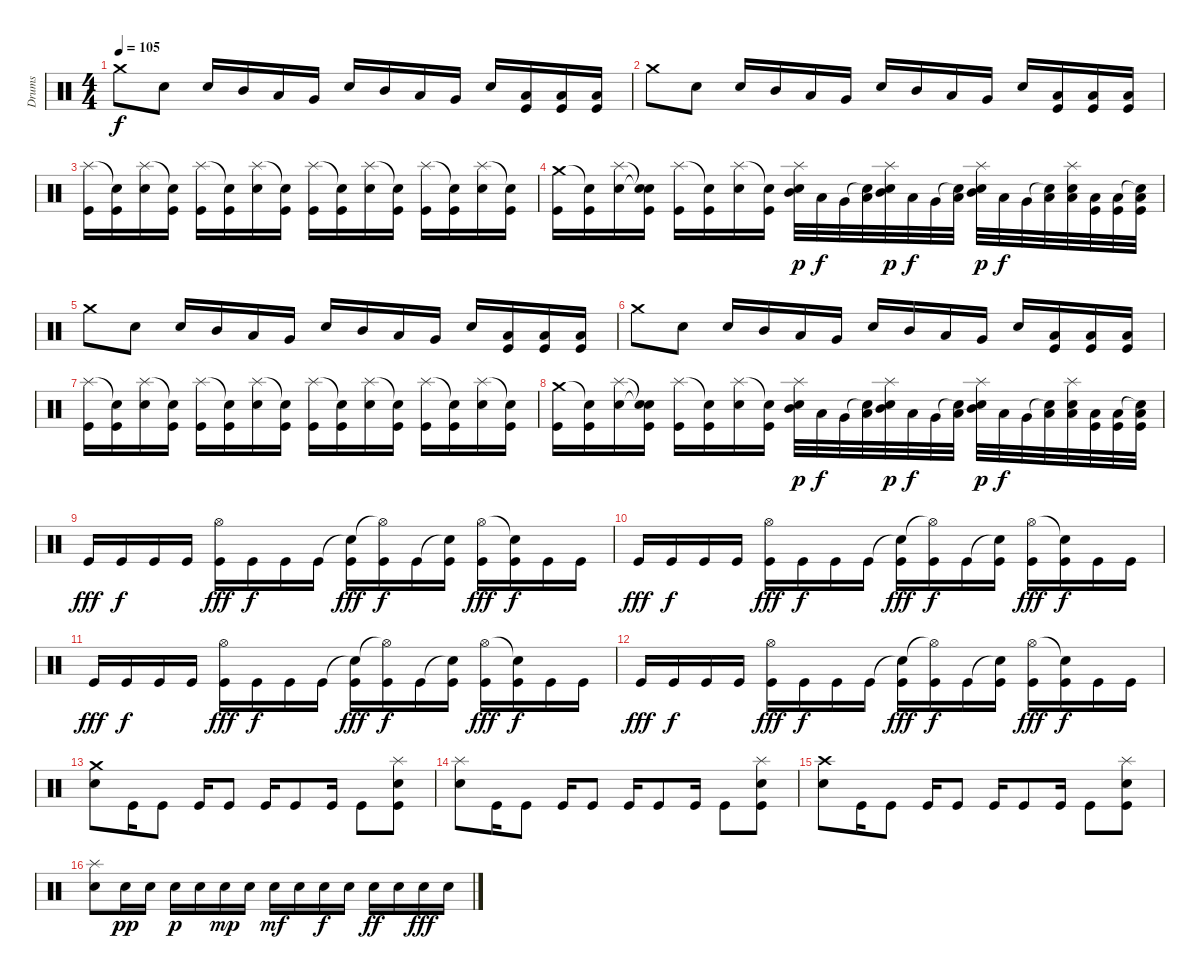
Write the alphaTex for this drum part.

\track ("Drums" "Drums") {instrument percussion}
\staff {score}
\articulation defaults
\ts (4 4)
\tempo 105
\clef neutral
\ks c "Crash medium (hit)".8{dy f} "Snare (hit) 2".8 "Snare (hit) 2".16 "Mid Tom (hit)".16 "Low Tom (hit)".16 "Very Low Tom (hit)".16 "Snare (hit) 2".16 "Mid Tom (hit)".16 "Low Tom (hit)".16 "Very Low Tom (hit)".16 "Snare (hit) 2".16
("Low Floor Tom (hit)" "Kick (hit)").16 ("Low Floor Tom (hit)" "Kick (hit)").16 ("Low Floor Tom (hit)" "Kick (hit)").16 |
"Crash medium (hit)".8 "Snare (hit) 2".8 "Snare (hit) 2".16 "Mid Tom (hit)".16 "Low Tom (hit)".16 "Very Low Tom (hit)".16 "Snare (hit) 2".16 "Mid Tom (hit)".16 "Low Tom (hit)".16 "Very Low Tom (hit)".16 "Snare (hit) 2".16 ("Low Floor Tom (hit)" "Kick (hit)").16 ("Low Floor Tom (hit)" "Kick (hit)").16 ("Low Floor Tom (hit)" "Kick (hit)").16 |
("Splash (hit)" "Kick (hit)").16 ("Snare (hit)"{t} "Kick (hit)").16 ("Splash (hit)" "Snare (hit) 2").16 ("Snare (hit)"{t} "Kick (hit)").16 ("Splash (hit)" "Kick (hit)").16 ("Snare (hit)"{t} "Kick (hit)").16 ("Splash (hit)" "Snare (hit) 2").16 ("Snare (hit)"{t} "Kick (hit)").16 ("Splash (hit)" "Kick (hit)").16 ("Snare (hit)"{t} "Kick (hit)").16 ("Splash (hit)" "Snare (hit) 2").16 ("Snare (hit)"{t} "Kick (hit)").16 ("Splash (hit)" "Kick (hit)").16 ("Snare (hit)"{t} "Kick (hit)").16 ("Splash (hit)" "Snare (hit) 2").16 ("Snare (hit)"{t} "Kick (hit)").16 |
("Crash medium (hit)" "Kick (hit)").16 ("Snare (hit)"{t} "Kick (hit)").16 ("Splash (hit)" "Snare (hit) 2").16 ("Snare (hit)"{t} "Snare (hit)"{t} "Kick (hit)").16 ("Splash (hit)" "Kick (hit)").16 ("Snare (hit)"{t} "Kick (hit)").16 ("Splash (hit)" "Snare (hit) 2").16 ("Snare (hit)"{t} "Kick (hit)").16 ("Splash (hit)" "Mid Tom (hit)" "Snare (hit) 2").32{dy p} "Low Tom (hit)".32{dy f} "Very Low Tom (hit)".32 ("Snare (hit)"{t} "Low Floor Tom (hit)").32 ("Splash (hit)" "Mid Tom (hit)" "Snare (hit) 2").32{dy p} "Low Tom (hit)".32{dy f} "Very Low Tom (hit)".32 ("Snare (hit)"{t} "Low Floor Tom (hit)").32 ("Splash (hit)" "Mid Tom (hit)" "Snare (hit) 2").32{dy p} "Low Tom (hit)".32{dy f} "Very Low Tom (hit)".32 ("Snare (hit)"{t} "Low Floor Tom (hit)").32 ("Splash (hit)" "Low Floor Tom (hit)" "Snare (hit) 2").32 ("Low Floor Tom (hit)" "Kick (hit)").32 ("Low Floor Tom (hit)" "Kick (hit)").32 ("Snare (hit)"{t} "Low Floor Tom (hit)" "Kick (hit)").32 |
"Crash medium (hit)".8 "Snare (hit) 2".8 "Snare (hit) 2".16 "Mid Tom (hit)".16 "Low Tom (hit)".16 "Very Low Tom (hit)".16 "Snare (hit) 2".16 "Mid Tom (hit)".16 "Low Tom (hit)".16 "Very Low Tom (hit)".16 "Snare (hit) 2".16 ("Low Floor Tom (hit)" "Kick (hit)").16 ("Low Floor Tom (hit)" "Kick (hit)").16 ("Low Floor Tom (hit)" "Kick (hit)").16 |
"Crash medium (hit)".8 "Snare (hit) 2".8 "Snare (hit) 2".16 "Mid Tom (hit)".16 "Low Tom (hit)".16 "Very Low Tom (hit)".16 "Snare (hit) 2".16 "Mid Tom (hit)".16 "Low Tom (hit)".16 "Very Low Tom (hit)".16 "Snare (hit) 2".16 ("Low Floor Tom (hit)" "Kick (hit)").16 ("Low Floor Tom (hit)" "Kick (hit)").16 ("Low Floor Tom (hit)" "Kick (hit)").16 |
("Splash (hit)" "Kick (hit)").16 ("Snare (hit)"{t} "Kick (hit)").16 ("Splash (hit)" "Snare (hit) 2").16 ("Snare (hit)"{t} "Kick (hit)").16 ("Splash (hit)" "Kick (hit)").16 ("Snare (hit)"{t} "Kick (hit)").16 ("Splash (hit)" "Snare (hit) 2").16 ("Snare (hit)"{t} "Kick (hit)").16 ("Splash (hit)" "Kick (hit)").16 ("Snare (hit)"{t} "Kick (hit)").16 ("Splash (hit)" "Snare (hit) 2").16 ("Snare (hit)"{t} "Kick (hit)").16 ("Splash (hit)" "Kick (hit)").16 ("Snare (hit)"{t} "Kick (hit)").16 ("Splash (hit)" "Snare (hit) 2").16 ("Snare (hit)"{t} "Kick (hit)").16 |
("Crash medium (hit)" "Kick (hit)").16 ("Snare (hit)"{t} "Kick (hit)").16 ("Splash (hit)" "Snare (hit) 2").16 ("Snare (hit)"{t} "Snare (hit)"{t} "Kick (hit)").16 ("Splash (hit)" "Kick (hit)").16 ("Snare (hit)"{t} "Kick (hit)").16 ("Splash (hit)" "Snare (hit) 2").16 ("Snare (hit)"{t} "Kick (hit)").16 ("Splash (hit)" "Mid Tom (hit)" "Snare (hit) 2").32{dy p} "Low Tom (hit)".32{dy f} "Very Low Tom (hit)".32 ("Snare (hit)"{t} "Low Floor Tom (hit)").32 ("Splash (hit)" "Mid Tom (hit)" "Snare (hit) 2").32{dy p} "Low Tom (hit)".32{dy f} "Very Low Tom (hit)".32 ("Snare (hit)"{t} "Low Floor Tom (hit)").32 ("Splash (hit)" "Mid Tom (hit)" "Snare (hit) 2").32{dy p} "Low Tom (hit)".32{dy f} "Very Low Tom (hit)".32 ("Snare (hit)"{t} "Low Floor Tom (hit)").32 ("Splash (hit)" "Low Floor Tom (hit)" "Snare (hit) 2").32 ("Low Floor Tom (hit)" "Kick (hit)").32 ("Low Floor Tom (hit)" "Kick (hit)").32 ("Snare (hit)"{t} "Low Floor Tom (hit)" "Kick (hit)").32 |
"Kick (hit)".16{dy fff} "Kick (hit)".16{dy f} "Kick (hit)".16 "Kick (hit)".16 ("Hi-Hat (open)" "Kick (hit)").16{dy fff} "Kick (hit)".16{dy f} "Kick (hit)".16 "Kick (hit)".16 ("Snare (hit)"{t} "Kick (hit)").16{dy fff} ("Hi-Hat (open)"{t} "Kick (hit)").16{dy f} "Kick (hit)".16 ("Snare (hit)"{t} "Kick (hit)").16 ("Hi-Hat (open)" "Kick (hit)").16{dy fff} ("Snare (hit)"{t} "Kick (hit)").16{dy f} "Kick (hit)".16 "Kick (hit)".16 |
"Kick (hit)".16{dy fff} "Kick (hit)".16{dy f} "Kick (hit)".16 "Kick (hit)".16 ("Hi-Hat (open)" "Kick (hit)").16{dy fff} "Kick (hit)".16{dy f} "Kick (hit)".16 "Kick (hit)".16 ("Snare (hit)"{t} "Kick (hit)").16{dy fff} ("Hi-Hat (open)"{t} "Kick (hit)").16{dy f} "Kick (hit)".16 ("Snare (hit)"{t} "Kick (hit)").16 ("Hi-Hat (open)" "Kick (hit)").16{dy fff} ("Snare (hit)"{t} "Kick (hit)").16{dy f} "Kick (hit)".16 "Kick (hit)".16 |
"Kick (hit)".16{dy fff} "Kick (hit)".16{dy f} "Kick (hit)".16 "Kick (hit)".16 ("Hi-Hat (open)" "Kick (hit)").16{dy fff} "Kick (hit)".16{dy f} "Kick (hit)".16 "Kick (hit)".16 ("Snare (hit)"{t} "Kick (hit)").16{dy fff} ("Hi-Hat (open)"{t} "Kick (hit)").16{dy f} "Kick (hit)".16 ("Snare (hit)"{t} "Kick (hit)").16 ("Hi-Hat (open)" "Kick (hit)").16{dy fff} ("Snare (hit)"{t} "Kick (hit)").16{dy f} "Kick (hit)".16 "Kick (hit)".16 |
"Kick (hit)".16{dy fff} "Kick (hit)".16{dy f} "Kick (hit)".16 "Kick (hit)".16 ("Hi-Hat (open)" "Kick (hit)").16{dy fff} "Kick (hit)".16{dy f} "Kick (hit)".16 "Kick (hit)".16 ("Snare (hit)"{t} "Kick (hit)").16{dy fff} ("Hi-Hat (open)"{t} "Kick (hit)").16{dy f} "Kick (hit)".16 ("Snare (hit)"{t} "Kick (hit)").16 ("Hi-Hat (open)" "Kick (hit)").16{dy fff} ("Snare (hit)"{t} "Kick (hit)").16{dy f} "Kick (hit)".16 "Kick (hit)".16 |
("Crash medium (hit)" "Snare (hit) 2").8 "Kick (hit)".16 "Kick (hit)".8 "Kick (hit)".16 "Kick (hit)".8 "Kick (hit)".16 "Kick (hit)".8 "Kick (hit)".16 "Kick (hit)".8 ("Splash (hit)" "Snare (hit) 2" "Kick (hit)").8 |
("Splash (hit)" "Snare (hit) 2").8 "Kick (hit)".16 "Kick (hit)".8 "Kick (hit)".16 "Kick (hit)".8 "Kick (hit)".16 "Kick (hit)".8 "Kick (hit)".16 "Kick (hit)".8 ("Splash (hit)" "Snare (hit) 2" "Kick (hit)").8 |
("Crash high (hit)" "Snare (hit) 2").8 "Kick (hit)".16 "Kick (hit)".8 "Kick (hit)".16 "Kick (hit)".8 "Kick (hit)".16 "Kick (hit)".8 "Kick (hit)".16 "Kick (hit)".8 ("Splash (hit)" "Snare (hit) 2" "Kick (hit)").8 |
("Splash (hit)" "Snare (hit) 2").8 "Snare (hit) 2".16{dy pp} "Snare (hit) 2".16 "Snare (hit) 2".16{dy p} "Snare (hit) 2".16 "Snare (hit) 2".16{dy mp} "Snare (hit) 2".16 "Snare (hit) 2".16{dy mf} "Snare (hit) 2".16 "Snare (hit) 2".16{dy f} "Snare (hit) 2".16 "Snare (hit) 2".16{dy ff} "Snare (hit) 2".16 "Snare (hit) 2".16{dy fff} "Snare (hit) 2".16
